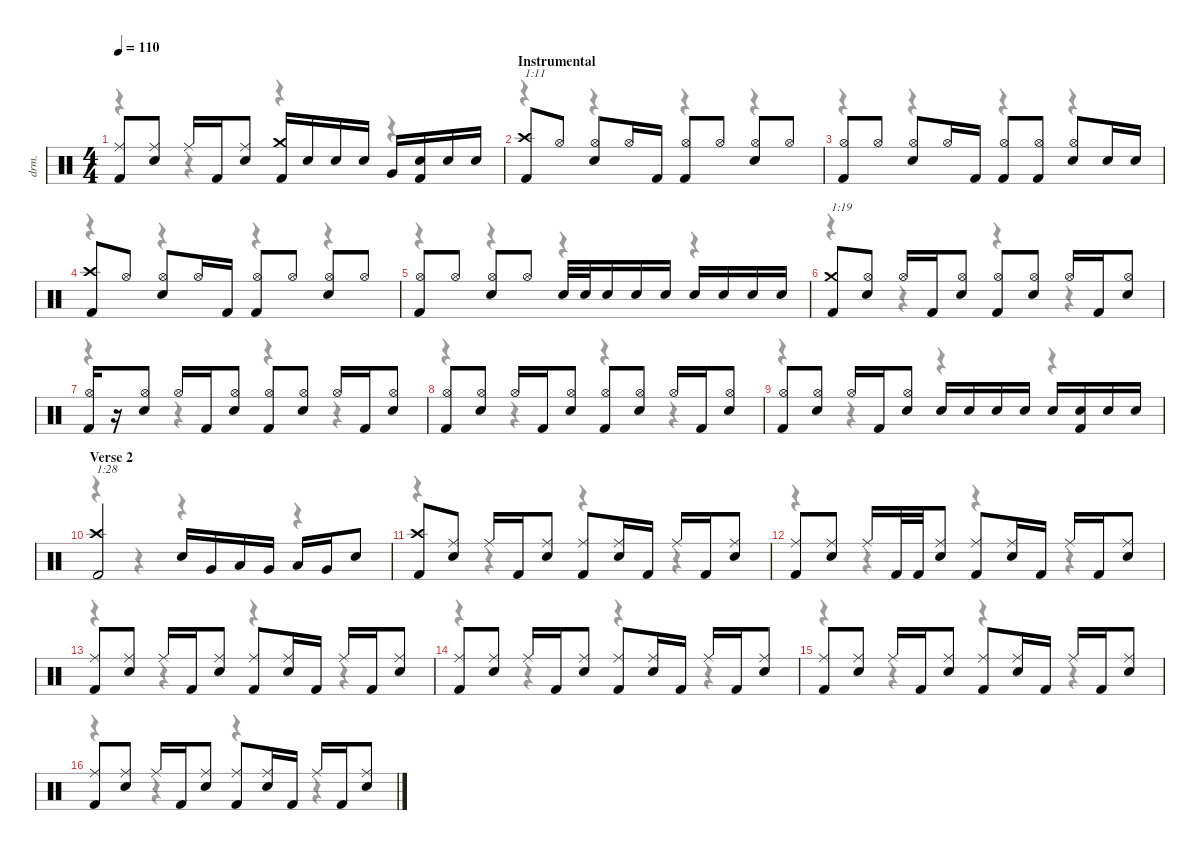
\defaultSystemsLayout 4
\hideDynamics
\bracketExtendMode nobrackets
\otherSystemsTrackNameOrientation horizontal
\track ("Drums" "drm.") {instrument percussion}
\staff {score}
\articulation defaults
\voice
\ts (4 4)
\tempo 110
\clef neutral
\ks c
("Ride (middle)" "Kick (hit) 2").8{dy f beam Up} ("Ride (middle)" "Snare (hit) 2").8{beam Up} "Ride (middle)".16{beam Up} "Kick (hit) 2".16{beam Up} ("Ride (middle)" "Snare (hit) 2").8{beam Up} ("Crash medium (hit)" "Kick (hit) 2").16{beam Up} "Snare (hit) 2".16{beam Up} "Snare (hit) 2".16{beam Up} "Snare (hit) 2".16{beam Up} "Very Low Tom (hit)".16{beam Up} ("Snare (hit) 2" "Kick (hit) 2").16{beam Up} "Snare (hit) 2".16{beam Up} "Snare (hit) 2".16{beam Up} |
\section ("" "Instrumental")
("Crash high (hit)" "Kick (hit) 2").8{txt "1:11" beam Up} "Hi-Hat (open)".8{beam Up} ("Hi-Hat (open)" "Snare (hit) 2").8{beam Up} "Hi-Hat (open)".16{beam Up} "Kick (hit) 2".16{beam Up} ("Hi-Hat (open)" "Kick (hit) 2").8{beam Up} "Hi-Hat (open)".8{beam Up} ("Hi-Hat (open)" "Snare (hit) 2").8{beam Up} "Hi-Hat (open)".8{beam Up} |
("Hi-Hat (open)" "Kick (hit) 2").8{beam Up} "Hi-Hat (open)".8{beam Up} ("Hi-Hat (open)" "Snare (hit) 2").8{beam Up} "Hi-Hat (open)".16{beam Up} "Kick (hit) 2".16{beam Up} ("Hi-Hat (open)" "Kick (hit) 2").8{beam Up} ("Hi-Hat (open)" "Kick (hit) 2").8{beam Up} ("Hi-Hat (open)" "Snare (hit) 2").8{beam Up} "Snare (hit) 2".16{beam Up} "Snare (hit) 2".16{beam Up} |
("Crash high (hit)" "Kick (hit) 2").8{beam Up} "Hi-Hat (open)".8{beam Up} ("Hi-Hat (open)" "Snare (hit) 2").8{beam Up} "Hi-Hat (open)".16{beam Up} "Kick (hit) 2".16{beam Up} ("Hi-Hat (open)" "Kick (hit) 2").8{beam Up} "Hi-Hat (open)".8{beam Up} ("Hi-Hat (open)" "Snare (hit) 2").8{beam Up} "Hi-Hat (open)".8{beam Up} |
("Hi-Hat (open)" "Kick (hit) 2").8{beam Up} "Hi-Hat (open)".8{beam Up} ("Hi-Hat (open)" "Snare (hit) 2").8{beam Up} "Hi-Hat (open)".8{beam Up} "Snare (hit) 2".32{beam Up} "Snare (hit) 2".32{beam Up} "Snare (hit) 2".16{beam Up} "Snare (hit) 2".16{beam Up} "Snare (hit) 2".16{beam Up} "Snare (hit) 2".16{beam Up} "Snare (hit) 2".16{beam Up} "Snare (hit) 2".16{beam Up} "Snare (hit) 2".16{beam Up} |
("Crash medium (hit)" "Kick (hit) 2").8{txt "1:19" beam Up} ("Hi-Hat (open)" "Snare (hit) 2").8{beam Up} "Hi-Hat (open)".16{beam Up} "Kick (hit) 2".16{beam Up} ("Hi-Hat (open)" "Snare (hit) 2").8{beam Up} ("Hi-Hat (open)" "Kick (hit) 2").8{beam Up} ("Hi-Hat (open)" "Snare (hit) 2").8{beam Up} "Hi-Hat (open)".16{beam Up} "Kick (hit) 2".16{beam Up} ("Hi-Hat (open)" "Snare (hit) 2").8{beam Up} |
("Hi-Hat (open)" "Kick (hit) 2").16{beam Up} r.16{beam Up} ("Hi-Hat (open)" "Snare (hit) 2").8{beam Up} "Hi-Hat (open)".16{beam Up} "Kick (hit) 2".16{beam Up} ("Hi-Hat (open)" "Snare (hit) 2").8{beam Up} ("Hi-Hat (open)" "Kick (hit) 2").8{beam Up} ("Hi-Hat (open)" "Snare (hit) 2").8{beam Up} "Hi-Hat (open)".16{beam Up} "Kick (hit) 2".16{beam Up} ("Hi-Hat (open)" "Snare (hit) 2").8{beam Up} |
("Hi-Hat (open)" "Kick (hit) 2").8{beam Up} ("Hi-Hat (open)" "Snare (hit) 2").8{beam Up} "Hi-Hat (open)".16{beam Up} "Kick (hit) 2".16{beam Up} ("Hi-Hat (open)" "Snare (hit) 2").8{beam Up} ("Hi-Hat (open)" "Kick (hit) 2").8{beam Up} ("Hi-Hat (open)" "Snare (hit) 2").8{beam Up} "Hi-Hat (open)".16{beam Up} "Kick (hit) 2".16{beam Up} ("Hi-Hat (open)" "Snare (hit) 2").8{beam Up} |
("Hi-Hat (open)" "Kick (hit) 2").8{beam Up} ("Hi-Hat (open)" "Snare (hit) 2").8{beam Up} "Hi-Hat (open)".16{beam Up} "Kick (hit) 2".16{beam Up} ("Hi-Hat (open)" "Snare (hit) 2").8{beam Up} "Snare (hit) 2".16{beam Up} "Snare (hit) 2".16{beam Up} "Snare (hit) 2".16{beam Up} "Snare (hit) 2".16{beam Up} "Snare (hit) 2".16{beam Up} ("Snare (hit) 2" "Kick (hit) 2").16{beam Up} "Snare (hit) 2".16{beam Up} "Snare (hit) 2".16{beam Up} |
\section ("" "Verse 2")
("Crash high (hit)" "Kick (hit) 2").2{txt "1:28" beam Up} "Snare (hit) 2".16{beam Up} "Very Low Tom (hit)".16{beam Up} "Low Tom (hit)".16{beam Up} "Very Low Tom (hit)".16{beam Up} "Low Tom (hit)".16{beam Up} "Very Low Tom (hit)".16{beam Up} "Snare (hit) 2".8{beam Up} |
("Crash high (hit)" "Kick (hit) 2").8{beam Up} ("Ride (middle)" "Snare (hit) 2").8{beam Up} "Ride (middle)".16{beam Up} "Kick (hit) 2".16{beam Up} ("Ride (middle)" "Snare (hit) 2").8{beam Up} ("Ride (middle)" "Kick (hit) 2").8{beam Up} ("Ride (middle)" "Snare (hit) 2").16{beam Up} "Kick (hit) 2".16{beam Up} "Ride (middle)".16{beam Up} "Kick (hit) 2".16{beam Up} ("Ride (middle)" "Snare (hit) 2").8{beam Up} |
("Ride (middle)" "Kick (hit) 2").8{beam Up} ("Ride (middle)" "Snare (hit) 2").8{beam Up} "Ride (middle)".16{beam Up} "Kick (hit) 2".32{beam Up} "Kick (hit) 2".32{beam Up} ("Ride (middle)" "Snare (hit) 2").8{beam Up} ("Ride (middle)" "Kick (hit) 2").8{beam Up} ("Ride (middle)" "Snare (hit) 2").16{beam Up} "Kick (hit) 2".16{beam Up} "Ride (middle)".16{beam Up} "Kick (hit) 2".16{beam Up} ("Ride (middle)" "Snare (hit) 2").8{beam Up} |
("Ride (middle)" "Kick (hit) 2").8{beam Up} ("Ride (middle)" "Snare (hit) 2").8{beam Up} "Ride (middle)".16{beam Up} "Kick (hit) 2".16{beam Up} ("Ride (middle)" "Snare (hit) 2").8{beam Up} ("Ride (middle)" "Kick (hit) 2").8{beam Up} ("Ride (middle)" "Snare (hit) 2").16{beam Up} "Kick (hit) 2".16{beam Up} "Ride (middle)".16{beam Up} "Kick (hit) 2".16{beam Up} ("Ride (middle)" "Snare (hit) 2").8{beam Up} |
("Ride (middle)" "Kick (hit) 2").8{beam Up} ("Ride (middle)" "Snare (hit) 2").8{beam Up} "Ride (middle)".16{beam Up} "Kick (hit) 2".16{beam Up} ("Ride (middle)" "Snare (hit) 2").8{beam Up} ("Ride (middle)" "Kick (hit) 2").8{beam Up} ("Ride (middle)" "Snare (hit) 2").16{beam Up} "Kick (hit) 2".16{beam Up} "Ride (middle)".16{beam Up} "Kick (hit) 2".16{beam Up} ("Ride (middle)" "Snare (hit) 2").8{beam Up} |
("Ride (middle)" "Kick (hit) 2").8{beam Up} ("Ride (middle)" "Snare (hit) 2").8{beam Up} "Ride (middle)".16{beam Up} "Kick (hit) 2".16{beam Up} ("Ride (middle)" "Snare (hit) 2").8{beam Up} ("Ride (middle)" "Kick (hit) 2").8{beam Up} ("Ride (middle)" "Snare (hit) 2").16{beam Up} "Kick (hit) 2".16{beam Up} "Ride (middle)".16{beam Up} "Kick (hit) 2".16{beam Up} ("Ride (middle)" "Snare (hit) 2").8{beam Up} |
("Ride (middle)" "Kick (hit) 2").8{beam Up} ("Ride (middle)" "Snare (hit) 2").8{beam Up} "Ride (middle)".16{beam Up} "Kick (hit) 2".16{beam Up} ("Ride (middle)" "Snare (hit) 2").8{beam Up} ("Ride (middle)" "Kick (hit) 2").8{beam Up} ("Ride (middle)" "Snare (hit) 2").16{beam Up} "Kick (hit) 2".16{beam Up} "Ride (middle)".16{beam Up} "Kick (hit) 2".16{beam Up} ("Ride (middle)" "Snare (hit) 2").8{beam Up}
\voice
\clef neutral
\ottava regular
\simile none
\ks c
r.4{dy mf beam Down} r.4{beam Down} r.4{beam Down} r.4{beam Down} |
r.4{beam Down} r.4{beam Down} r.4{beam Down} r.4{beam Down} |
r.4{beam Down} r.4{beam Down} r.4{beam Down} r.4{beam Down} |
r.4{beam Down} r.4{beam Down} r.4{beam Down} r.4{beam Down} |
r.4{beam Down} r.4{beam Down} r.4{beam Down} r.4{beam Down} |
r.4{beam Down} r.4{beam Down} r.4{beam Down} r.4{beam Down} |
r.4{beam Down} r.4{beam Down} r.4{beam Down} r.4{beam Down} |
r.4{beam Down} r.4{beam Down} r.4{beam Down} r.4{beam Down} |
r.4{beam Down} r.4{beam Down} r.4{beam Down} r.4{beam Down} |
r.4{beam Down} r.4{beam Down} r.4{beam Down} r.4{beam Down} |
r.4{beam Down} r.4{beam Down} r.4{beam Down} r.4{beam Down} |
r.4{beam Down} r.4{beam Down} r.4{beam Down} r.4{beam Down} |
r.4{beam Down} r.4{beam Down} r.4{beam Down} r.4{beam Down} |
r.4{beam Down} r.4{beam Down} r.4{beam Down} r.4{beam Down} |
r.4{beam Down} r.4{beam Down} r.4{beam Down} r.4{beam Down} |
r.4{beam Down} r.4{beam Down} r.4{beam Down} r.4{beam Down}
